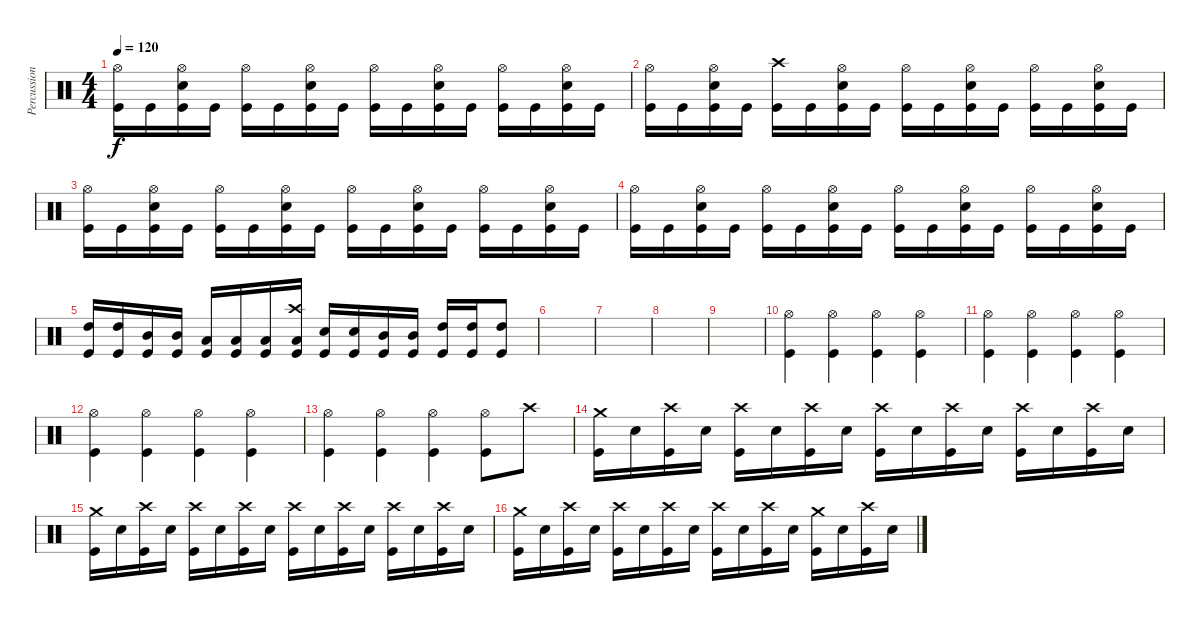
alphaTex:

\track ("Percussioni" "Percussion") {instrument percussion}
\staff {score}
\articulation defaults
\ts (4 4)
\tempo 120
\clef neutral
\ks c
("Hi-Hat (open)" "Kick (hit)").16{dy f} "Kick (hit)".16 ("Hi-Hat (open)" "Electric Snare (hit)" "Kick (hit)").16 "Kick (hit)".16 ("Hi-Hat (open)" "Kick (hit)").16 "Kick (hit)".16 ("Hi-Hat (open)" "Electric Snare (hit)" "Kick (hit)").16 "Kick (hit)".16 ("Hi-Hat (open)" "Kick (hit)").16 "Kick (hit)".16 ("Hi-Hat (open)" "Electric Snare (hit)" "Kick (hit)").16 "Kick (hit)".16 ("Hi-Hat (open)" "Kick (hit)").16 "Kick (hit)".16 ("Hi-Hat (open)" "Electric Snare (hit)" "Kick (hit)").16 "Kick (hit)".16 |
("Hi-Hat (open)" "Kick (hit)").16 "Kick (hit)".16 ("Hi-Hat (open)" "Electric Snare (hit)" "Kick (hit)").16 "Kick (hit)".16 ("Crash high (hit)" "Kick (hit)").16 "Kick (hit)".16 ("Hi-Hat (open)" "Electric Snare (hit)" "Kick (hit)").16 "Kick (hit)".16 ("Hi-Hat (open)" "Kick (hit)").16 "Kick (hit)".16 ("Hi-Hat (open)" "Electric Snare (hit)" "Kick (hit)").16 "Kick (hit)".16 ("Hi-Hat (open)" "Kick (hit)").16 "Kick (hit)".16 ("Hi-Hat (open)" "Electric Snare (hit)" "Kick (hit)").16 "Kick (hit)".16 |
("Hi-Hat (open)" "Kick (hit)").16 "Kick (hit)".16 ("Hi-Hat (open)" "Electric Snare (hit)" "Kick (hit)").16 "Kick (hit)".16 ("Hi-Hat (open)" "Kick (hit)").16 "Kick (hit)".16 ("Hi-Hat (open)" "Electric Snare (hit)" "Kick (hit)").16 "Kick (hit)".16 ("Hi-Hat (open)" "Kick (hit)").16 "Kick (hit)".16 ("Hi-Hat (open)" "Electric Snare (hit)" "Kick (hit)").16 "Kick (hit)".16 ("Hi-Hat (open)" "Kick (hit)").16 "Kick (hit)".16 ("Hi-Hat (open)" "Electric Snare (hit)" "Kick (hit)").16 "Kick (hit)".16 |
("Hi-Hat (open)" "Kick (hit)").16 "Kick (hit)".16 ("Hi-Hat (open)" "Electric Snare (hit)" "Kick (hit)").16 "Kick (hit)".16 ("Hi-Hat (open)" "Kick (hit)").16 "Kick (hit)".16 ("Hi-Hat (open)" "Electric Snare (hit)" "Kick (hit)").16 "Kick (hit)".16 ("Hi-Hat (open)" "Kick (hit)").16 "Kick (hit)".16 ("Hi-Hat (open)" "Electric Snare (hit)" "Kick (hit)").16 "Kick (hit)".16 ("Hi-Hat (open)" "Kick (hit)").16 "Kick (hit)".16 ("Hi-Hat (open)" "Electric Snare (hit)" "Kick (hit)").16 "Kick (hit)".16 |
("High Tom (hit)" "Kick (hit)").16 ("High Tom (hit)" "Kick (hit)").16 ("Mid Tom (hit)" "Kick (hit)").16 ("Mid Tom (hit)" "Kick (hit)").16 ("Low Tom (hit)" "Kick (hit)").16 ("Low Tom (hit)" "Kick (hit)").16 ("Low Tom (hit)" "Kick (hit)").16 ("Crash high (hit)" "Low Tom (hit)" "Kick (hit)").16 ("Electric Snare (hit)" "Kick (hit)").16 ("Electric Snare (hit)" "Kick (hit)").16 ("Mid Tom (hit)" "Kick (hit)").16 ("Mid Tom (hit)" "Kick (hit)").16 ("High Tom (hit)" "Kick (hit)").16 ("High Tom (hit)" "Kick (hit)").16 ("High Tom (hit)" "Kick (hit)").8 |
|
|
|
|
("Hi-Hat (open)" "Kick (hit)").4 ("Hi-Hat (open)" "Kick (hit)").4 ("Hi-Hat (open)" "Kick (hit)").4 ("Hi-Hat (open)" "Kick (hit)").4 |
("Hi-Hat (open)" "Kick (hit)").4 ("Hi-Hat (open)" "Kick (hit)").4 ("Hi-Hat (open)" "Kick (hit)").4 ("Hi-Hat (open)" "Kick (hit)").4 |
("Hi-Hat (open)" "Kick (hit)").4 ("Hi-Hat (open)" "Kick (hit)").4 ("Hi-Hat (open)" "Kick (hit)").4 ("Hi-Hat (open)" "Kick (hit)").4 |
("Hi-Hat (open)" "Kick (hit)").4 ("Hi-Hat (open)" "Kick (hit)").4 ("Hi-Hat (open)" "Kick (hit)").4 ("Hi-Hat (open)" "Kick (hit)").8 "Crash high (hit)".8 |
("Crash medium (hit)" "Kick (hit)").16 "Electric Snare (hit)".16 ("Crash high (hit)" "Kick (hit)").16 "Electric Snare (hit)".16 ("Crash high (hit)" "Kick (hit)").16 "Electric Snare (hit)".16 ("Crash high (hit)" "Kick (hit)").16 "Electric Snare (hit)".16 ("Crash high (hit)" "Kick (hit)").16 "Electric Snare (hit)".16 ("Crash high (hit)" "Kick (hit)").16 "Electric Snare (hit)".16 ("Crash high (hit)" "Kick (hit)").16 "Electric Snare (hit)".16 ("Crash high (hit)" "Kick (hit)").16 "Electric Snare (hit)".16 |
("Crash medium (hit)" "Kick (hit)").16 "Electric Snare (hit)".16 ("Crash high (hit)" "Kick (hit)").16 "Electric Snare (hit)".16 ("Crash high (hit)" "Kick (hit)").16 "Electric Snare (hit)".16 ("Crash high (hit)" "Kick (hit)").16 "Electric Snare (hit)".16 ("Crash high (hit)" "Kick (hit)").16 "Electric Snare (hit)".16 ("Crash high (hit)" "Kick (hit)").16 "Electric Snare (hit)".16 ("Crash high (hit)" "Kick (hit)").16 "Electric Snare (hit)".16 ("Crash high (hit)" "Kick (hit)").16 "Electric Snare (hit)".16 |
("Crash medium (hit)" "Kick (hit)").16 "Electric Snare (hit)".16 ("Crash high (hit)" "Kick (hit)").16 "Electric Snare (hit)".16 ("Crash high (hit)" "Kick (hit)").16 "Electric Snare (hit)".16 ("Crash high (hit)" "Kick (hit)").16 "Electric Snare (hit)".16 ("Crash high (hit)" "Kick (hit)").16 "Electric Snare (hit)".16 ("Crash high (hit)" "Kick (hit)").16 "Electric Snare (hit)".16 ("Crash medium (hit)" "Kick (hit)").16 "Electric Snare (hit)".16 ("Crash high (hit)" "Kick (hit)").16 "Electric Snare (hit)".16
